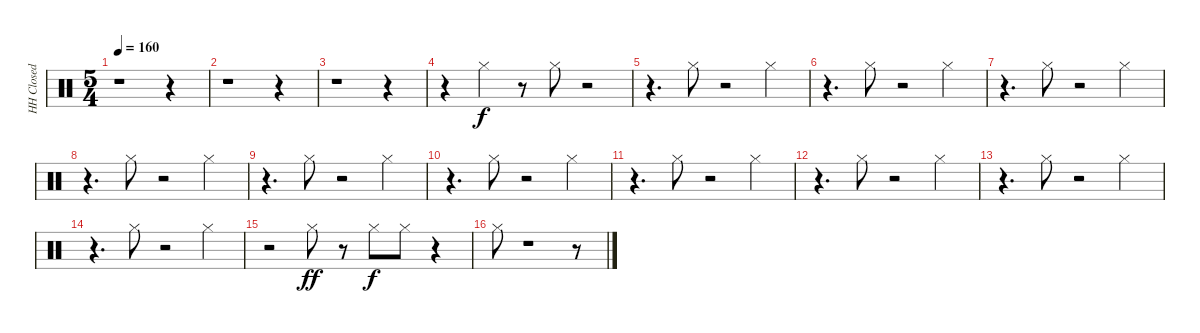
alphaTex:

\track ("HH Closed" "HH Closed") {instrument percussion}
\staff {score}
\articulation defaults
\ts (5 4)
\tempo 160
\clef neutral
\ks c
r.1{dy ff} r.4 |
r.1 r.4 |
r.1 r.4 |
r.4 "Hi-Hat (closed)".4{dy f} r.8 "Hi-Hat (closed)".8 r.2 |
r.4{d} "Hi-Hat (closed)".8 r.2 "Hi-Hat (closed)".4 |
r.4{d} "Hi-Hat (closed)".8 r.2 "Hi-Hat (closed)".4 |
r.4{d} "Hi-Hat (closed)".8 r.2 "Hi-Hat (closed)".4 |
r.4{d} "Hi-Hat (closed)".8 r.2 "Hi-Hat (closed)".4 |
r.4{d} "Hi-Hat (closed)".8 r.2 "Hi-Hat (closed)".4 |
r.4{d} "Hi-Hat (closed)".8 r.2 "Hi-Hat (closed)".4 |
r.4{d} "Hi-Hat (closed)".8 r.2 "Hi-Hat (closed)".4 |
r.4{d} "Hi-Hat (closed)".8 r.2 "Hi-Hat (closed)".4 |
r.4{d} "Hi-Hat (closed)".8 r.2 "Hi-Hat (closed)".4 |
r.4{d} "Hi-Hat (closed)".8 r.2 "Hi-Hat (closed)".4 |
r.2 "Hi-Hat (closed)".8{dy ff} r.8 "Hi-Hat (closed)".8{dy f} "Hi-Hat (closed)".8 r.4 |
"Hi-Hat (closed)".8 r.1 r.8
